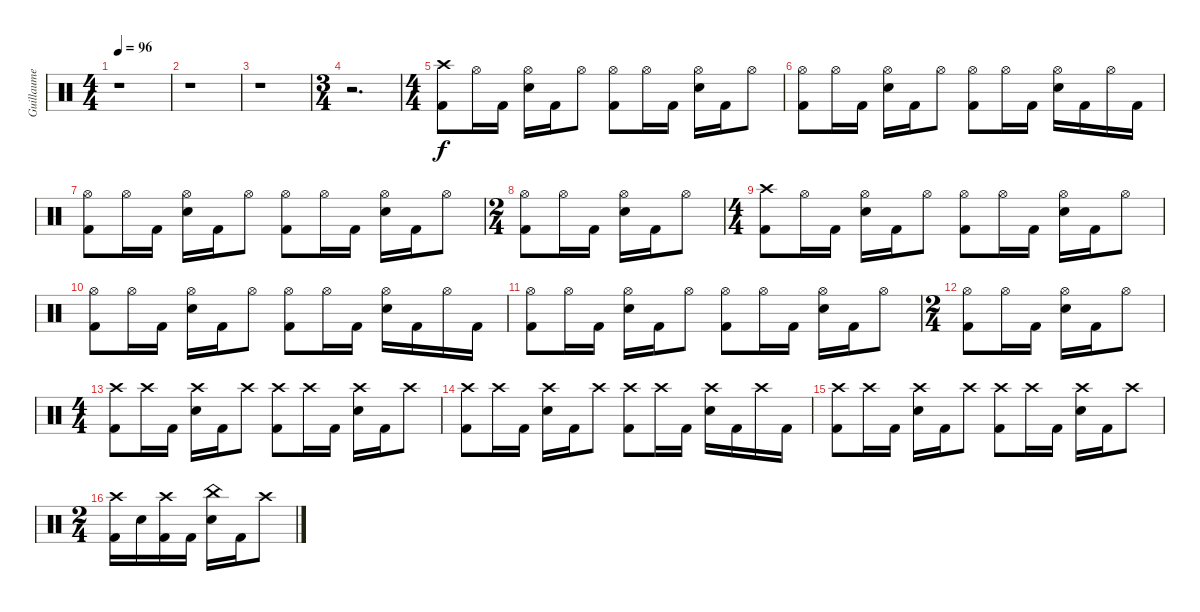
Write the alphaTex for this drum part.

\track ("Guillaume" "Guillaume") {instrument percussion}
\staff {score}
\articulation defaults
\ts (4 4)
\tempo 96
\clef neutral
\ks c
r.1{dy f} |
r.1 |
r.1 |
\ts (3 4)
r.2{d} |
\ts (4 4)
\section ("" "")
("Crash high (hit)" "Kick (hit) 2").8 "Hi-Hat (open)".16 "Kick (hit) 2".16 ("Hi-Hat (open)" "Electric Snare (hit)").16 "Kick (hit) 2".16 "Hi-Hat (open)".8 ("Hi-Hat (open)" "Kick (hit) 2").8 "Hi-Hat (open)".16 "Kick (hit) 2".16 ("Hi-Hat (open)" "Electric Snare (hit)").16 "Kick (hit) 2".16 "Hi-Hat (open)".8 |
("Hi-Hat (open)" "Kick (hit) 2").8 "Hi-Hat (open)".16 "Kick (hit) 2".16 ("Hi-Hat (open)" "Electric Snare (hit)").16 "Kick (hit) 2".16 "Hi-Hat (open)".8 ("Hi-Hat (open)" "Kick (hit) 2").8 "Hi-Hat (open)".16 "Kick (hit) 2".16 ("Hi-Hat (open)" "Electric Snare (hit)").16 "Kick (hit) 2".16 "Hi-Hat (open)".16 "Kick (hit) 2".16 |
("Hi-Hat (open)" "Kick (hit) 2").8 "Hi-Hat (open)".16 "Kick (hit) 2".16 ("Hi-Hat (open)" "Electric Snare (hit)").16 "Kick (hit) 2".16 "Hi-Hat (open)".8 ("Hi-Hat (open)" "Kick (hit) 2").8 "Hi-Hat (open)".16 "Kick (hit) 2".16 ("Hi-Hat (open)" "Electric Snare (hit)").16 "Kick (hit) 2".16 "Hi-Hat (open)".8 |
\ts (2 4)
("Hi-Hat (open)" "Kick (hit) 2").8 "Hi-Hat (open)".16 "Kick (hit) 2".16 ("Hi-Hat (open)" "Electric Snare (hit)").16 "Kick (hit) 2".16 "Hi-Hat (open)".8 |
\ts (4 4)
("Crash high (hit)" "Kick (hit) 2").8 "Hi-Hat (open)".16 "Kick (hit) 2".16 ("Hi-Hat (open)" "Electric Snare (hit)").16 "Kick (hit) 2".16 "Hi-Hat (open)".8 ("Hi-Hat (open)" "Kick (hit) 2").8 "Hi-Hat (open)".16 "Kick (hit) 2".16 ("Hi-Hat (open)" "Electric Snare (hit)").16 "Kick (hit) 2".16 "Hi-Hat (open)".8 |
("Hi-Hat (open)" "Kick (hit) 2").8 "Hi-Hat (open)".16 "Kick (hit) 2".16 ("Hi-Hat (open)" "Electric Snare (hit)").16 "Kick (hit) 2".16 "Hi-Hat (open)".8 ("Hi-Hat (open)" "Kick (hit) 2").8 "Hi-Hat (open)".16 "Kick (hit) 2".16 ("Hi-Hat (open)" "Electric Snare (hit)").16 "Kick (hit) 2".16 "Hi-Hat (open)".16 "Kick (hit) 2".16 |
("Hi-Hat (open)" "Kick (hit) 2").8 "Hi-Hat (open)".16 "Kick (hit) 2".16 ("Hi-Hat (open)" "Electric Snare (hit)").16 "Kick (hit) 2".16 "Hi-Hat (open)".8 ("Hi-Hat (open)" "Kick (hit) 2").8 "Hi-Hat (open)".16 "Kick (hit) 2".16 ("Hi-Hat (open)" "Electric Snare (hit)").16 "Kick (hit) 2".16 "Hi-Hat (open)".8 |
\ts (2 4)
("Hi-Hat (open)" "Kick (hit) 2").8 "Hi-Hat (open)".16 "Kick (hit) 2".16 ("Hi-Hat (open)" "Electric Snare (hit)").16 "Kick (hit) 2".16 "Hi-Hat (open)".8 |
\ts (4 4)
\section ("" "")
("Crash high (hit)" "Kick (hit) 2").8 "Crash high (hit)".16 "Kick (hit) 2".16 ("Crash high (hit)" "Electric Snare (hit)").16 "Kick (hit) 2".16 "Crash high (hit)".8 ("Crash high (hit)" "Kick (hit) 2").8 "Crash high (hit)".16 "Kick (hit) 2".16 ("Crash high (hit)" "Electric Snare (hit)").16 "Kick (hit) 2".16 "Crash high (hit)".8 |
("Crash high (hit)" "Kick (hit) 2").8 "Crash high (hit)".16 "Kick (hit) 2".16 ("Crash high (hit)" "Electric Snare (hit)").16 "Kick (hit) 2".16 "Crash high (hit)".8 ("Crash high (hit)" "Kick (hit) 2").8 "Crash high (hit)".16 "Kick (hit) 2".16 ("Crash high (hit)" "Electric Snare (hit)").16 "Kick (hit) 2".16 "Crash high (hit)".16 "Kick (hit) 2".16 |
("Crash high (hit)" "Kick (hit) 2").8 "Crash high (hit)".16 "Kick (hit) 2".16 ("Crash high (hit)" "Electric Snare (hit)").16 "Kick (hit) 2".16 "Crash high (hit)".8 ("Crash high (hit)" "Kick (hit) 2").8 "Crash high (hit)".16 "Kick (hit) 2".16 ("Crash high (hit)" "Electric Snare (hit)").16 "Kick (hit) 2".16 "Crash high (hit)".8 |
\ts (2 4)
("Crash high (hit)" "Kick (hit) 2").16 "Electric Snare (hit)".16 ("Crash high (hit)" "Kick (hit) 2").16 "Kick (hit) 2".16 ("China (hit)" "Electric Snare (hit)").16 "Kick (hit) 2".16 "Crash high (hit)".8
